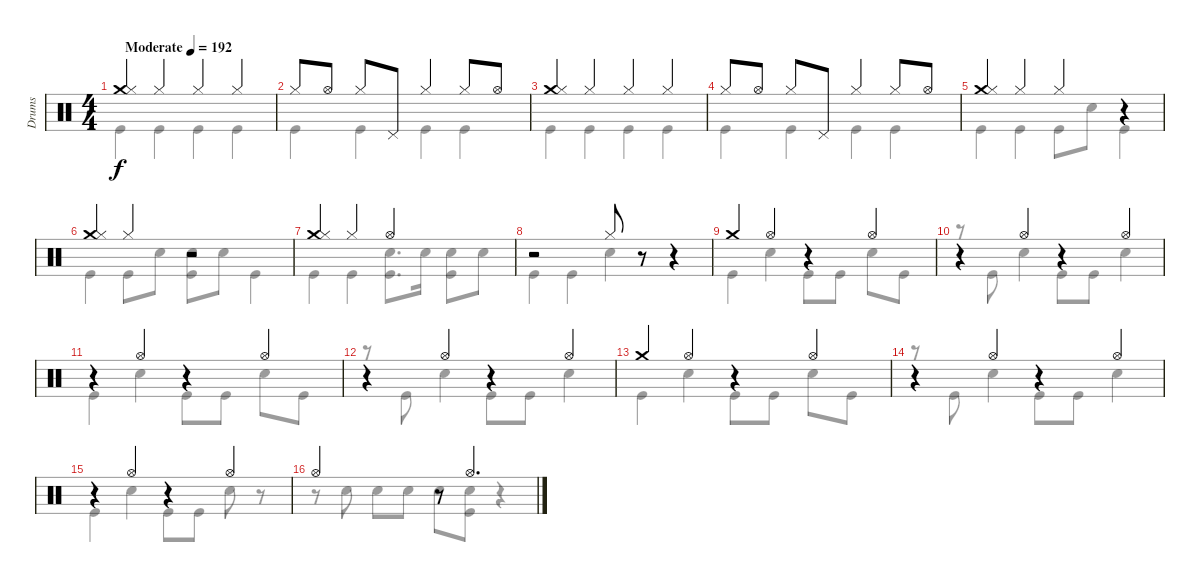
\track ("Drums" "Drums") {instrument percussion}
\staff {score}
\articulation defaults
\voice
\ts (4 4)
\tempo (192 "Moderate")
\clef neutral
\ks c
("Crash medium (hit)" "Hi-Hat (closed)").4{dy f} "Hi-Hat (closed)".4 "Hi-Hat (closed)".4 "Hi-Hat (closed)".4 |
"Hi-Hat (closed)".8 "Hi-Hat (open)".8 "Hi-Hat (closed)".8 "Pedal Hi-Hat (hit)".8 "Hi-Hat (closed)".4 "Hi-Hat (closed)".8 "Hi-Hat (open)".8 |
("Crash medium (hit)" "Hi-Hat (closed)").4 "Hi-Hat (closed)".4 "Hi-Hat (closed)".4 "Hi-Hat (closed)".4 |
"Hi-Hat (closed)".8 "Hi-Hat (open)".8 "Hi-Hat (closed)".8 "Pedal Hi-Hat (hit)".8 "Hi-Hat (closed)".4 "Hi-Hat (closed)".8 "Hi-Hat (open)".8 |
("Crash medium (hit)" "Hi-Hat (closed)").4 "Hi-Hat (closed)".4 "Hi-Hat (closed)".4 r.4 |
("Crash medium (hit)" "Hi-Hat (closed)").4 "Hi-Hat (closed)".4 r.2 |
("Crash medium (hit)" "Hi-Hat (closed)").4 "Hi-Hat (closed)".4 "Hi-Hat (open)".2 |
r.2 "Hi-Hat (closed)".8 r.8 r.4 |
"Crash medium (hit)".4 "Hi-Hat (open)".4 r.4 "Hi-Hat (open)".4 |
r.4 "Hi-Hat (open)".4 r.4 "Hi-Hat (open)".4 |
r.4 "Hi-Hat (open)".4 r.4 "Hi-Hat (open)".4 |
r.4 "Hi-Hat (open)".4 r.4 "Hi-Hat (open)".4 |
"Crash medium (hit)".4 "Hi-Hat (open)".4 r.4 "Hi-Hat (open)".4 |
r.4 "Hi-Hat (open)".4 r.4 "Hi-Hat (open)".4 |
r.4 "Hi-Hat (open)".4 r.4 "Hi-Hat (open)".4 |
"Hi-Hat (open)".2 r.8 "Hi-Hat (open)".4{d}
\voice
\clef neutral
\ottava regular
\simile none
\ks c "Kick (hit)".4{dy f} "Kick (hit)".4 "Kick (hit)".4 "Kick (hit)".4
|
"Kick (hit)".4 "Kick (hit)".4 "Kick (hit)".4 "Kick (hit)".4 |
"Kick (hit)".4 "Kick (hit)".4 "Kick (hit)".4 "Kick (hit)".4 |
"Kick (hit)".4 "Kick (hit)".4 "Kick (hit)".4 "Kick (hit)".4 |
"Kick (hit)".4 "Kick (hit)".4 "Kick (hit)".8 "Snare (hit) 2".8 "Kick (hit)".4 |
"Kick (hit)".4 "Kick (hit)".8 "Snare (hit) 2".8 ("Snare (hit) 2" "Kick (hit)").8 "Snare (hit) 2".8 "Kick (hit)".4 |
"Kick (hit)".4 "Kick (hit)".4 ("Snare (hit) 2" "Kick (hit)").8{d} "Snare (hit) 2".16 ("Snare (hit) 2" "Kick (hit)").8 "Snare (hit) 2".8 |
"Kick (hit)".4 "Kick (hit)".4 "Snare (hit) 2".4 r.4 |
"Kick (hit)".4 "Snare (hit) 2".4 "Kick (hit)".8 "Kick (hit)".8 "Snare (hit) 2".8 "Kick (hit)".8 |
r.8 "Kick (hit)".8 "Snare (hit) 2".4 "Kick (hit)".8 "Kick (hit)".8 "Snare (hit) 2".4 |
"Kick (hit)".4 "Snare (hit) 2".4 "Kick (hit)".8 "Kick (hit)".8 "Snare (hit) 2".8 "Kick (hit)".8 |
r.8 "Kick (hit)".8 "Snare (hit) 2".4 "Kick (hit)".8 "Kick (hit)".8 "Snare (hit) 2".4 |
"Kick (hit)".4 "Snare (hit) 2".4 "Kick (hit)".8 "Kick (hit)".8 "Snare (hit) 2".8 "Kick (hit)".8 |
r.8 "Kick (hit)".8 "Snare (hit) 2".4 "Kick (hit)".8 "Kick (hit)".8 "Snare (hit) 2".4 |
"Kick (hit)".4 "Snare (hit) 2".4 "Kick (hit)".8 "Kick (hit)".8 "Snare (hit) 2".8 r.8 |
r.8 "Snare (hit) 2".8 "Snare (hit) 2".8 "Snare (hit) 2".8 "Snare (hit) 2".8 ("Snare (hit) 2" "Kick (hit)").8 r.4
